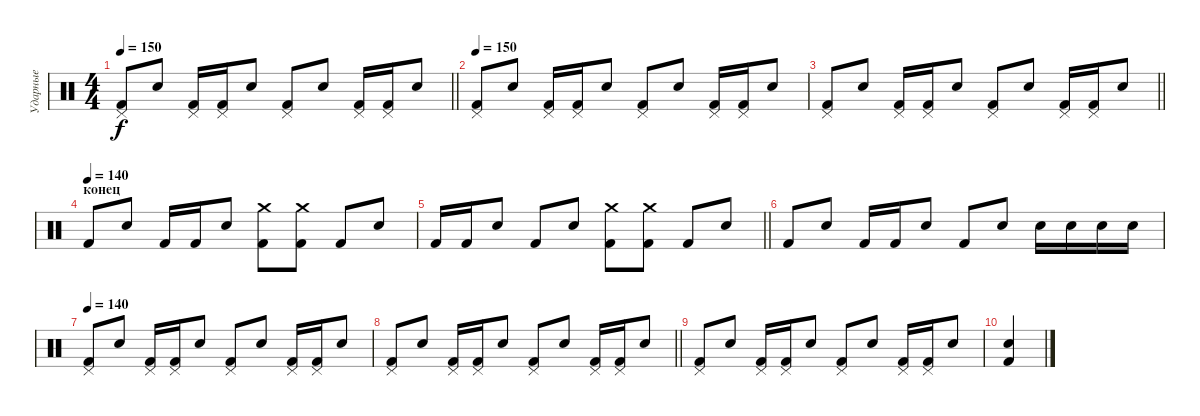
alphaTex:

\track ("Ударные" "Ударные") {instrument percussion}
\staff {score}
\articulation defaults
\ts (4 4)
\tempo 150
\clef neutral
\barLineRight lightlight
\ks c
("Kick (hit) 2" "Pedal Hi-Hat (hit)").8{dy f} "Electric Snare (hit)".8 ("Kick (hit) 2" "Pedal Hi-Hat (hit)").16 ("Kick (hit) 2" "Pedal Hi-Hat (hit)").16 "Electric Snare (hit)".8 ("Kick (hit) 2" "Pedal Hi-Hat (hit)").8 "Electric Snare (hit)".8 ("Kick (hit) 2" "Pedal Hi-Hat (hit)").16 ("Kick (hit) 2" "Pedal Hi-Hat (hit)").16 "Electric Snare (hit)".8 |
\tempo 150
("Kick (hit) 2" "Pedal Hi-Hat (hit)").8 "Electric Snare (hit)".8 ("Kick (hit) 2" "Pedal Hi-Hat (hit)").16 ("Kick (hit) 2" "Pedal Hi-Hat (hit)").16 "Electric Snare (hit)".8 ("Kick (hit) 2" "Pedal Hi-Hat (hit)").8 "Electric Snare (hit)".8 ("Kick (hit) 2" "Pedal Hi-Hat (hit)").16 ("Kick (hit) 2" "Pedal Hi-Hat (hit)").16 "Electric Snare (hit)".8 |
\barLineRight lightlight
("Kick (hit) 2" "Pedal Hi-Hat (hit)").8 "Electric Snare (hit)".8 ("Kick (hit) 2" "Pedal Hi-Hat (hit)").16 ("Kick (hit) 2" "Pedal Hi-Hat (hit)").16 "Electric Snare (hit)".8 ("Kick (hit) 2" "Pedal Hi-Hat (hit)").8 "Electric Snare (hit)".8 ("Kick (hit) 2" "Pedal Hi-Hat (hit)").16 ("Kick (hit) 2" "Pedal Hi-Hat (hit)").16 "Electric Snare (hit)".8 |
\section ("" "конец")
\tempo (140)
"Kick (hit) 2".8 "Electric Snare (hit)".8 "Kick (hit) 2".16 "Kick (hit) 2".16 "Electric Snare (hit)".8 ("Kick (hit) 2" "Crash medium (hit)").8 ("Kick (hit) 2" "Crash medium (hit)").8 "Kick (hit) 2".8 "Electric Snare (hit)".8 |
\barLineRight lightlight "Kick (hit) 2".16 "Kick (hit) 2".16 "Electric Snare (hit)".8 "Kick (hit) 2".8 "Electric Snare (hit)".8
("Kick (hit) 2" "Crash medium (hit)").8 ("Kick (hit) 2" "Crash medium (hit)").8 "Kick (hit) 2".8 "Electric Snare (hit)".8 |
"Kick (hit) 2".8 "Electric Snare (hit)".8 "Kick (hit) 2".16 "Kick (hit) 2".16 "Electric Snare (hit)".8 "Kick (hit) 2".8 "Electric Snare (hit)".8 "Electric Snare (hit)".16 "Electric Snare (hit)".16 "Electric Snare (hit)".16 "Electric Snare (hit)".16 |
\tempo 140
("Kick (hit) 2" "Pedal Hi-Hat (hit)").8 "Electric Snare (hit)".8 ("Kick (hit) 2" "Pedal Hi-Hat (hit)").16 ("Kick (hit) 2" "Pedal Hi-Hat (hit)").16 "Electric Snare (hit)".8 ("Kick (hit) 2" "Pedal Hi-Hat (hit)").8 "Electric Snare (hit)".8 ("Kick (hit) 2" "Pedal Hi-Hat (hit)").16 ("Kick (hit) 2" "Pedal Hi-Hat (hit)").16 "Electric Snare (hit)".8 |
\barLineRight lightlight
("Kick (hit) 2" "Pedal Hi-Hat (hit)").8 "Electric Snare (hit)".8 ("Kick (hit) 2" "Pedal Hi-Hat (hit)").16 ("Kick (hit) 2" "Pedal Hi-Hat (hit)").16 "Electric Snare (hit)".8 ("Kick (hit) 2" "Pedal Hi-Hat (hit)").8 "Electric Snare (hit)".8 ("Kick (hit) 2" "Pedal Hi-Hat (hit)").16 ("Kick (hit) 2" "Pedal Hi-Hat (hit)").16 "Electric Snare (hit)".8 |
("Kick (hit) 2" "Pedal Hi-Hat (hit)").8 "Electric Snare (hit)".8 ("Kick (hit) 2" "Pedal Hi-Hat (hit)").16 ("Kick (hit) 2" "Pedal Hi-Hat (hit)").16 "Electric Snare (hit)".8 ("Kick (hit) 2" "Pedal Hi-Hat (hit)").8 "Electric Snare (hit)".8 ("Kick (hit) 2" "Pedal Hi-Hat (hit)").16 ("Kick (hit) 2" "Pedal Hi-Hat (hit)").16 "Electric Snare (hit)".8 |
("Kick (hit) 2" "Electric Snare (hit)").4
